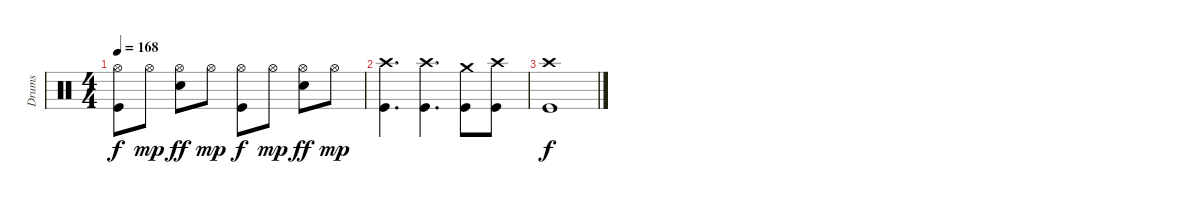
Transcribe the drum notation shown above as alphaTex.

\track ("Drums" "Drums") {instrument percussion}
\staff {score}
\articulation defaults
\ts (4 4)
\tempo 168
\clef neutral
\ks c
("Hi-Hat (open)" "Kick (hit)").8{dy f} "Hi-Hat (open)".8{dy mp} ("Hi-Hat (open)" "Snare (hit) 2").8{dy ff} "Hi-Hat (open)".8{dy mp} ("Hi-Hat (open)" "Kick (hit)").8{dy f} "Hi-Hat (open)".8{dy mp} ("Hi-Hat (open)" "Snare (hit) 2").8{dy ff} "Hi-Hat (open)".8{dy mp} |
("Crash high (hit)" "Kick (hit)").4{d} ("Crash high (hit)" "Kick (hit)").4{d} ("Crash medium (hit)" "Kick (hit)").8 ("Crash high (hit)" "Kick (hit)").8 |
("Crash high (hit)" "Kick (hit)").1{dy f}
